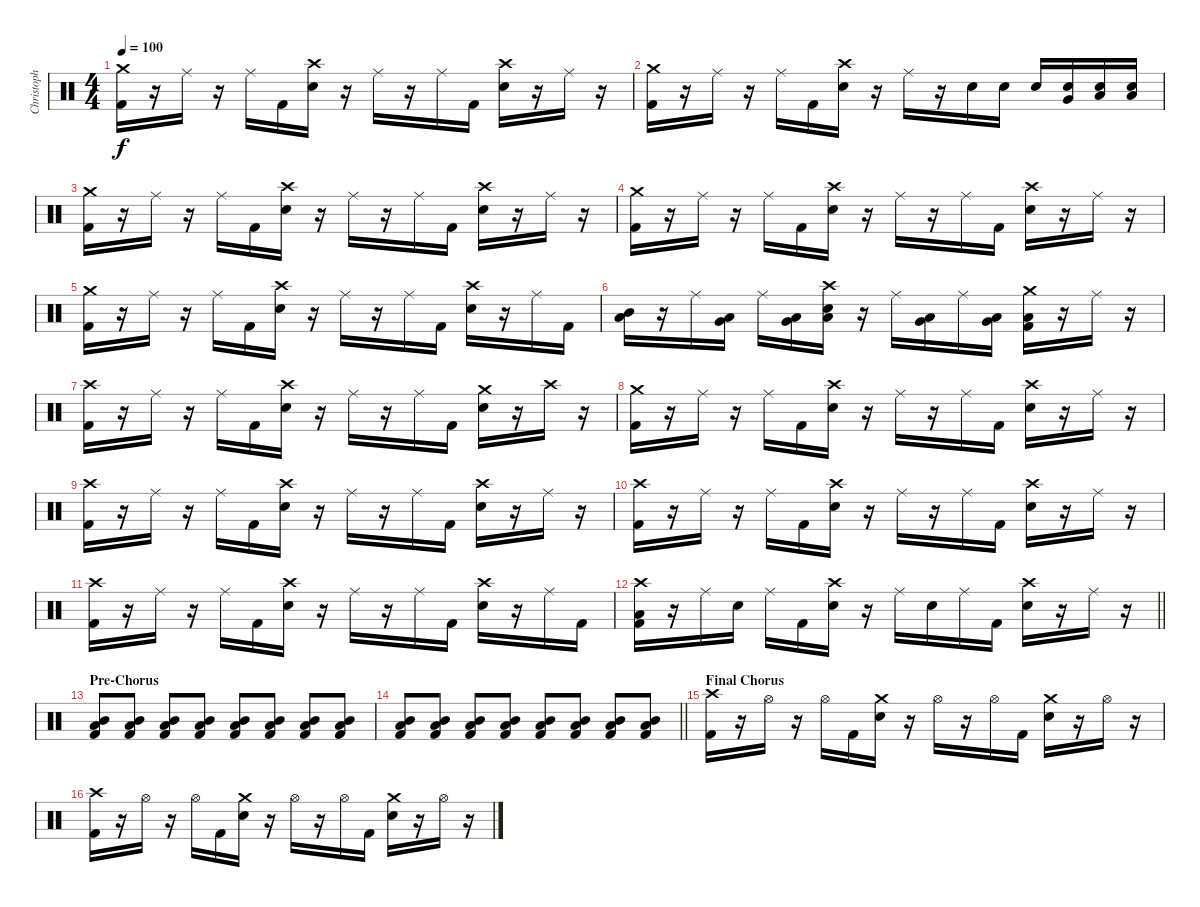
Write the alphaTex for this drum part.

\track ("Christoph Schneider" "Christoph ") {instrument percussion}
\staff {score}
\articulation defaults
\ts (4 4)
\tempo 100
\clef neutral
\ks c
("Crash medium (hit)" "Kick (hit) 2").16{dy f} r.16 "Ride (middle)".16 r.16 "Ride (middle)".16 "Kick (hit) 2".16 ("Crash high (hit)" "Snare (hit) 2").16 r.16 "Ride (middle)".16 r.16 "Ride (middle)".16 "Kick (hit) 2".16 ("Crash high (hit)" "Snare (hit) 2").16 r.16 "Ride (middle)".16 r.16 |
("Crash medium (hit)" "Kick (hit) 2").16 r.16 "Ride (middle)".16 r.16 "Ride (middle)".16 "Kick (hit) 2".16 ("Crash high (hit)" "Snare (hit) 2").16 r.16 "Ride (middle)".16 r.16 "Snare (hit) 2".16 "Snare (hit) 2".16 "Snare (hit) 2".16 ("Very Low Tom (hit)" "Snare (hit) 2").16 ("Low Tom (hit)" "Snare (hit) 2").16 ("Low Floor Tom (hit)" "Snare (hit) 2").16 |
("Crash medium (hit)" "Kick (hit) 2").16 r.16 "Ride (middle)".16 r.16 "Ride (middle)".16 "Kick (hit) 2".16 ("Crash high (hit)" "Snare (hit) 2").16 r.16 "Ride (middle)".16 r.16 "Ride (middle)".16 "Kick (hit) 2".16 ("Crash high (hit)" "Snare (hit) 2").16 r.16 "Ride (middle)".16 r.16 |
("Crash medium (hit)" "Kick (hit) 2").16 r.16 "Ride (middle)".16 r.16 "Ride (middle)".16 "Kick (hit) 2".16 ("Crash high (hit)" "Snare (hit) 2").16 r.16 "Ride (middle)".16 r.16 "Ride (middle)".16 "Kick (hit) 2".16 ("Crash high (hit)" "Snare (hit) 2").16 r.16 "Ride (middle)".16 r.16 |
("Crash medium (hit)" "Kick (hit) 2").16 r.16 "Ride (middle)".16 r.16 "Ride (middle)".16 "Kick (hit) 2".16 ("Crash high (hit)" "Snare (hit) 2").16 r.16 "Ride (middle)".16 r.16 "Ride (middle)".16 "Kick (hit) 2".16 ("Crash high (hit)" "Snare (hit) 2").16 r.16 "Ride (middle)".16 "Kick (hit) 2".16 |
("Mid Tom (hit)" "Low Tom (hit)").16 r.16 "Ride (middle)".16 ("Very Low Tom (hit)" "Low Floor Tom (hit)").16 "Ride (middle)".16 ("Very Low Tom (hit)" "Low Floor Tom (hit)").16 ("Crash high (hit)" "Low Tom (hit)" "Snare (hit) 2").16 r.16 "Ride (middle)".16 ("Very Low Tom (hit)" "Low Floor Tom (hit)").16 "Ride (middle)".16 ("Very Low Tom (hit)" "Low Floor Tom (hit)").16 ("Crash medium (hit)" "Low Tom (hit)" "Kick (hit) 2").16 r.16 "Ride (middle)".16 r.16 |
("Crash high (hit)" "Kick (hit) 2").16 r.16 "Ride (middle)".16 r.16 "Ride (middle)".16 "Kick (hit) 2".16 ("Crash high (hit)" "Snare (hit) 2").16 r.16 "Ride (middle)".16 r.16 "Ride (middle)".16 "Kick (hit) 2".16 ("Crash medium (hit)" "Snare (hit) 2").16 r.16 "Crash high (hit)".16 r.16 |
("Crash medium (hit)" "Kick (hit) 2").16 r.16 "Ride (middle)".16 r.16 "Ride (middle)".16 "Kick (hit) 2".16 ("Crash high (hit)" "Snare (hit) 2").16 r.16 "Ride (middle)".16 r.16 "Ride (middle)".16 "Kick (hit) 2".16 ("Crash high (hit)" "Snare (hit) 2").16 r.16 "Ride (middle)".16 r.16 |
("Crash high (hit)" "Kick (hit) 2").16 r.16 "Ride (middle)".16 r.16 "Ride (middle)".16 "Kick (hit) 2".16 ("Crash high (hit)" "Snare (hit) 2").16 r.16 "Ride (middle)".16 r.16 "Ride (middle)".16 "Kick (hit) 2".16 ("Crash high (hit)" "Snare (hit) 2").16 r.16 "Ride (middle)".16 r.16 |
("Crash high (hit)" "Kick (hit) 2").16 r.16 "Ride (middle)".16 r.16 "Ride (middle)".16 "Kick (hit) 2".16 ("Crash high (hit)" "Snare (hit) 2").16 r.16 "Ride (middle)".16 r.16 "Ride (middle)".16 "Kick (hit) 2".16 ("Crash high (hit)" "Snare (hit) 2").16 r.16 "Ride (middle)".16 r.16 |
("Crash high (hit)" "Kick (hit) 2").16 r.16 "Ride (middle)".16 r.16 "Ride (middle)".16 "Kick (hit) 2".16 ("Crash high (hit)" "Snare (hit) 2").16 r.16 "Ride (middle)".16 r.16 "Ride (middle)".16 "Kick (hit) 2".16 ("Crash high (hit)" "Snare (hit) 2").16 r.16 "Ride (middle)".16 "Kick (hit) 2".16 |
\barLineRight lightlight
("Crash high (hit)" "Low Tom (hit)" "Kick (hit) 2").16 r.16 "Ride (middle)".16 "Snare (hit) 2".16 "Ride (middle)".16 "Kick (hit) 2".16 ("Crash high (hit)" "Snare (hit) 2").16 r.16 "Ride (middle)".16 "Snare (hit) 2".16 "Ride (middle)".16 "Kick (hit) 2".16 ("Crash high (hit)" "Snare (hit) 2").16 r.16 "Ride (middle)".16 r.16 |
\section ("" "Pre-Chorus")
("Mid Tom (hit)" "Low Tom (hit)" "Kick (hit) 2").8 ("Mid Tom (hit)" "Low Tom (hit)" "Kick (hit) 2").8 ("Mid Tom (hit)" "Low Tom (hit)" "Kick (hit) 2").8 ("Mid Tom (hit)" "Low Tom (hit)" "Kick (hit) 2").8 ("Mid Tom (hit)" "Low Tom (hit)" "Kick (hit) 2").8 ("Mid Tom (hit)" "Low Tom (hit)" "Kick (hit) 2").8 ("Mid Tom (hit)" "Low Tom (hit)" "Kick (hit) 2").8 ("Mid Tom (hit)" "Low Tom (hit)" "Kick (hit) 2").8 |
\barLineRight lightlight
("Mid Tom (hit)" "Low Tom (hit)" "Kick (hit) 2").8 ("Mid Tom (hit)" "Low Tom (hit)" "Kick (hit) 2").8 ("Mid Tom (hit)" "Low Tom (hit)" "Kick (hit) 2").8 ("Mid Tom (hit)" "Low Tom (hit)" "Kick (hit) 2").8 ("Mid Tom (hit)" "Low Tom (hit)" "Kick (hit) 2").8 ("Mid Tom (hit)" "Low Tom (hit)" "Kick (hit) 2").8 ("Mid Tom (hit)" "Low Tom (hit)" "Kick (hit) 2").8 ("Mid Tom (hit)" "Low Tom (hit)" "Kick (hit) 2").8 |
\section ("" "Final Chorus")
("Crash high (hit)" "Kick (hit) 2").16 r.16 "Hi-Hat (open)".16 r.16 "Hi-Hat (open)".16 "Kick (hit) 2".16 ("Crash medium (hit)" "Snare (hit) 2").16 r.16 "Hi-Hat (open)".16 r.16 "Hi-Hat (open)".16 "Kick (hit) 2".16 ("Crash medium (hit)" "Snare (hit) 2").16 r.16 "Hi-Hat (open)".16 r.16 |
("Crash high (hit)" "Kick (hit) 2").16 r.16 "Hi-Hat (open)".16 r.16 "Hi-Hat (open)".16 "Kick (hit) 2".16 ("Crash medium (hit)" "Snare (hit) 2").16 r.16 "Hi-Hat (open)".16 r.16 "Hi-Hat (open)".16 "Kick (hit) 2".16 ("Crash medium (hit)" "Snare (hit) 2").16 r.16 "Hi-Hat (open)".16 r.16
